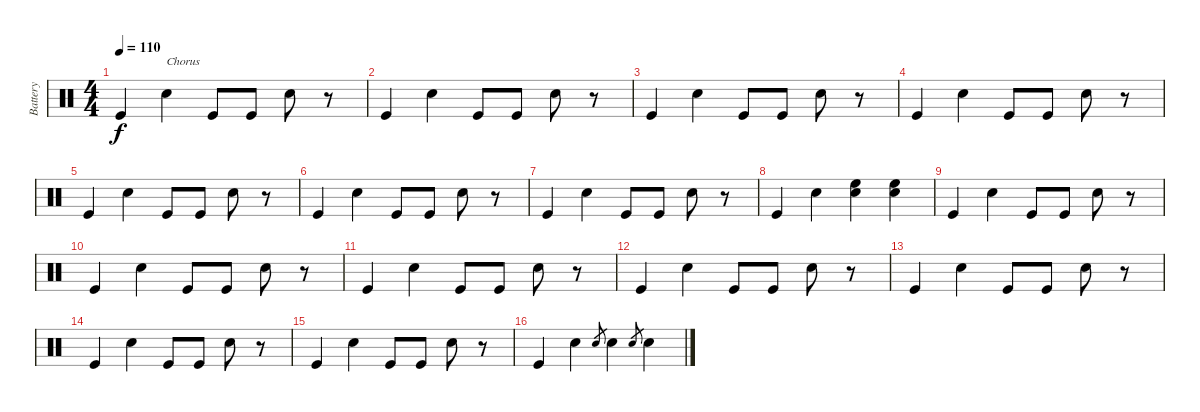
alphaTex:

\track ("Battery" "Battery") {instrument percussion}
\staff {score}
\articulation defaults
\ts (4 4)
\tempo 110
\clef neutral
\ks c "Kick (hit)".4{dy f} "Snare (hit) 2".4{txt "Chorus"} "Kick (hit)".8 "Kick (hit)".8 "Snare (hit) 2".8
r.8 |
"Kick (hit)".4 "Snare (hit) 2".4 "Kick (hit)".8 "Kick (hit)".8 "Snare (hit) 2".8 r.8 |
"Kick (hit)".4 "Snare (hit) 2".4 "Kick (hit)".8 "Kick (hit)".8 "Snare (hit) 2".8 r.8 |
"Kick (hit)".4 "Snare (hit) 2".4 "Kick (hit)".8 "Kick (hit)".8 "Snare (hit) 2".8 r.8 |
"Kick (hit)".4 "Snare (hit) 2".4 "Kick (hit)".8 "Kick (hit)".8 "Snare (hit) 2".8 r.8 |
"Kick (hit)".4 "Snare (hit) 2".4 "Kick (hit)".8 "Kick (hit)".8 "Snare (hit) 2".8 r.8 |
"Kick (hit)".4 "Snare (hit) 2".4 "Kick (hit)".8 "Kick (hit)".8 "Snare (hit) 2".8 r.8 |
"Kick (hit)".4 "Snare (hit) 2".4 ("High Floor Tom (hit)" "Snare (hit) 2").4 ("High Floor Tom (hit)" "Snare (hit) 2").4 |
"Kick (hit)".4 "Snare (hit) 2".4 "Kick (hit)".8 "Kick (hit)".8 "Snare (hit) 2".8 r.8 |
"Kick (hit)".4 "Snare (hit) 2".4 "Kick (hit)".8 "Kick (hit)".8 "Snare (hit) 2".8 r.8 |
"Kick (hit)".4 "Snare (hit) 2".4 "Kick (hit)".8 "Kick (hit)".8 "Snare (hit) 2".8 r.8 |
"Kick (hit)".4 "Snare (hit) 2".4 "Kick (hit)".8 "Kick (hit)".8 "Snare (hit) 2".8 r.8 |
"Kick (hit)".4 "Snare (hit) 2".4 "Kick (hit)".8 "Kick (hit)".8 "Snare (hit) 2".8 r.8 |
"Kick (hit)".4 "Snare (hit) 2".4 "Kick (hit)".8 "Kick (hit)".8 "Snare (hit) 2".8 r.8 |
"Kick (hit)".4 "Snare (hit) 2".4 "Kick (hit)".8 "Kick (hit)".8 "Snare (hit) 2".8 r.8 |
"Kick (hit)".4 "Snare (hit) 2".4 "Snare (hit) 2".8{gr} "Snare (hit) 2".4 "Snare (hit) 2".8{gr} "Snare (hit) 2".4
